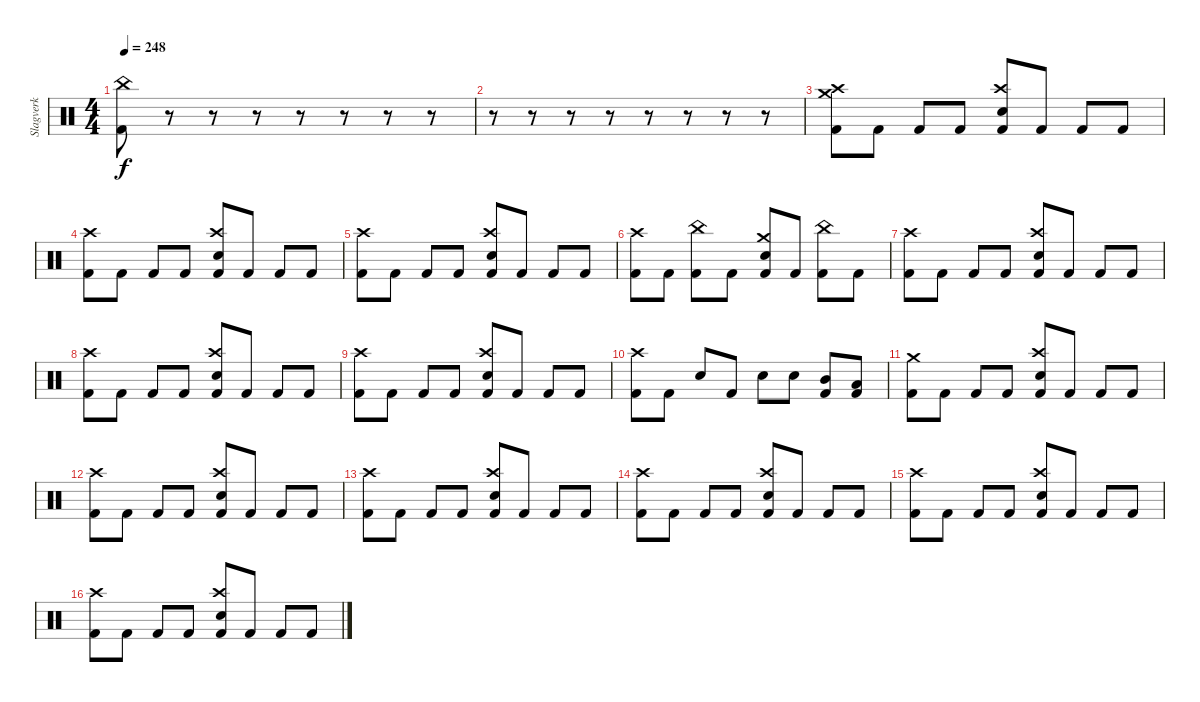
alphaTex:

\track ("Slagverk" "Slagverk") {instrument percussion}
\staff {score}
\articulation defaults
\ts (4 4)
\tempo 248
\clef neutral
\ks c
("China (hit)" "Kick (hit) 2").8{dy f} r.8 r.8 r.8 r.8 r.8 r.8 r.8 |
r.8 r.8 r.8 r.8 r.8 r.8 r.8 r.8 |
("Crash medium (hit)" "Crash high (hit)" "Kick (hit) 2").8 "Kick (hit) 2".8 "Kick (hit) 2".8 "Kick (hit) 2".8 ("Crash high (hit)" "Snare (hit) 2" "Kick (hit) 2").8 "Kick (hit) 2".8 "Kick (hit) 2".8 "Kick (hit) 2".8 |
("Crash high (hit)" "Kick (hit) 2").8 "Kick (hit) 2".8 "Kick (hit) 2".8 "Kick (hit) 2".8 ("Crash high (hit)" "Snare (hit) 2" "Kick (hit) 2").8 "Kick (hit) 2".8 "Kick (hit) 2".8 "Kick (hit) 2".8 |
("Crash high (hit)" "Kick (hit) 2").8 "Kick (hit) 2".8 "Kick (hit) 2".8 "Kick (hit) 2".8 ("Crash high (hit)" "Snare (hit) 2" "Kick (hit) 2").8 "Kick (hit) 2".8 "Kick (hit) 2".8 "Kick (hit) 2".8 |
("Crash high (hit)" "Kick (hit) 2").8 "Kick (hit) 2".8 ("China (hit)" "Kick (hit) 2").8 "Kick (hit) 2".8 ("Crash medium (hit)" "Snare (hit) 2" "Kick (hit) 2").8 "Kick (hit) 2".8 ("China (hit)" "Kick (hit) 2").8 "Kick (hit) 2".8 |
("Crash high (hit)" "Kick (hit) 2").8 "Kick (hit) 2".8 "Kick (hit) 2".8 "Kick (hit) 2".8 ("Crash high (hit)" "Snare (hit) 2" "Kick (hit) 2").8 "Kick (hit) 2".8 "Kick (hit) 2".8 "Kick (hit) 2".8 |
("Crash high (hit)" "Kick (hit) 2").8 "Kick (hit) 2".8 "Kick (hit) 2".8 "Kick (hit) 2".8 ("Crash high (hit)" "Snare (hit) 2" "Kick (hit) 2").8 "Kick (hit) 2".8 "Kick (hit) 2".8 "Kick (hit) 2".8 |
("Crash high (hit)" "Kick (hit) 2").8 "Kick (hit) 2".8 "Kick (hit) 2".8 "Kick (hit) 2".8 ("Crash high (hit)" "Snare (hit) 2" "Kick (hit) 2").8 "Kick (hit) 2".8 "Kick (hit) 2".8 "Kick (hit) 2".8 |
("Crash high (hit)" "Kick (hit) 2").8 "Kick (hit) 2".8 "Snare (hit) 2".8 "Kick (hit) 2".8 "Snare (hit) 2".8 "Snare (hit) 2".8 ("Mid Tom (hit)" "Kick (hit) 2").8 ("Low Tom (hit)" "Kick (hit) 2").8 |
("Crash medium (hit)" "Kick (hit) 2").8 "Kick (hit) 2".8 "Kick (hit) 2".8 "Kick (hit) 2".8 ("Crash high (hit)" "Snare (hit) 2" "Kick (hit) 2").8 "Kick (hit) 2".8 "Kick (hit) 2".8 "Kick (hit) 2".8 |
("Crash high (hit)" "Kick (hit) 2").8 "Kick (hit) 2".8 "Kick (hit) 2".8 "Kick (hit) 2".8 ("Crash high (hit)" "Snare (hit) 2" "Kick (hit) 2").8 "Kick (hit) 2".8 "Kick (hit) 2".8 "Kick (hit) 2".8 |
("Crash high (hit)" "Kick (hit) 2").8 "Kick (hit) 2".8 "Kick (hit) 2".8 "Kick (hit) 2".8 ("Crash high (hit)" "Snare (hit) 2" "Kick (hit) 2").8 "Kick (hit) 2".8 "Kick (hit) 2".8 "Kick (hit) 2".8 |
("Crash high (hit)" "Kick (hit) 2").8 "Kick (hit) 2".8 "Kick (hit) 2".8 "Kick (hit) 2".8 ("Crash high (hit)" "Snare (hit) 2" "Kick (hit) 2").8 "Kick (hit) 2".8 "Kick (hit) 2".8 "Kick (hit) 2".8 |
("Crash high (hit)" "Kick (hit) 2").8 "Kick (hit) 2".8 "Kick (hit) 2".8 "Kick (hit) 2".8 ("Crash high (hit)" "Snare (hit) 2" "Kick (hit) 2").8 "Kick (hit) 2".8 "Kick (hit) 2".8 "Kick (hit) 2".8 |
("Crash high (hit)" "Kick (hit) 2").8 "Kick (hit) 2".8 "Kick (hit) 2".8 "Kick (hit) 2".8 ("Crash high (hit)" "Snare (hit) 2" "Kick (hit) 2").8 "Kick (hit) 2".8 "Kick (hit) 2".8 "Kick (hit) 2".8
